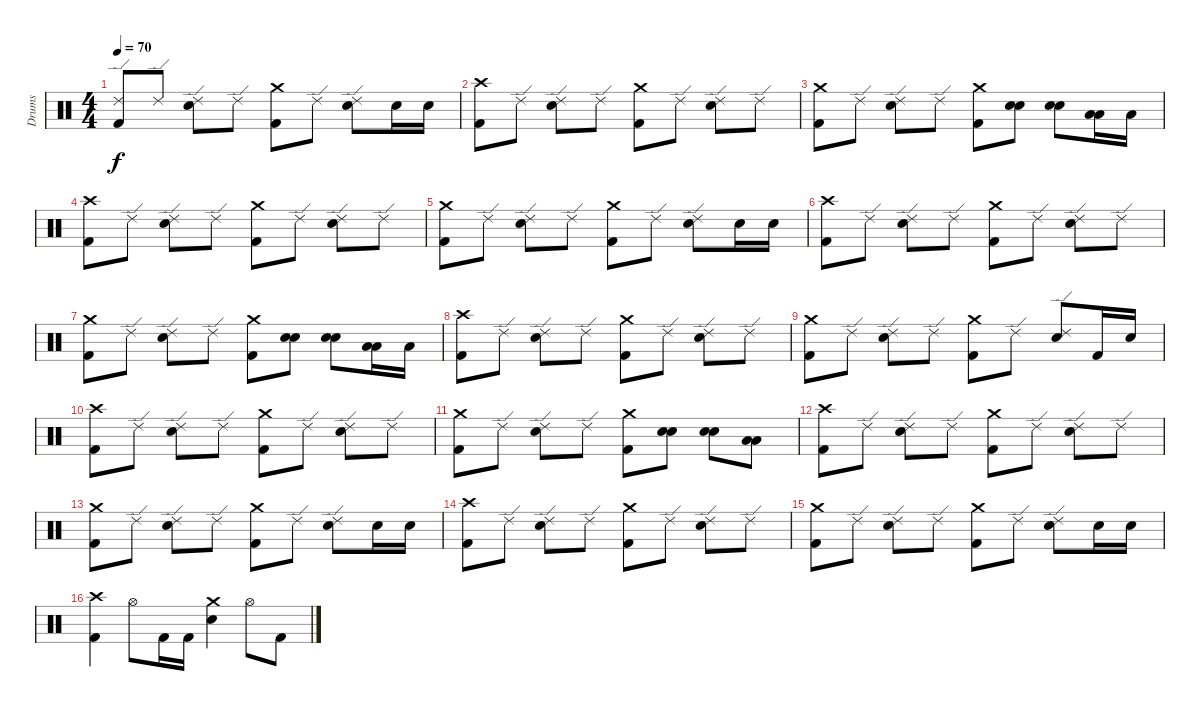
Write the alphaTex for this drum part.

\track ("Drums" "Drums") {instrument percussion}
\staff {score}
\articulation defaults
\ts (4 4)
\tempo 70
\clef neutral
\ks c
("Ride (edge) 2" "Kick (hit) 2").8{dy f} "Ride (edge) 2".8 ("Ride (edge) 2" "Electric Snare (hit)").8 "Ride (edge) 2".8 ("Crash medium (hit)" "Kick (hit) 2").8 "Ride (edge) 2".8 ("Ride (edge) 2" "Electric Snare (hit)").8 "Electric Snare (hit)".16 "Electric Snare (hit)".16 |
("Crash high (hit)" "Kick (hit) 2").8 "Ride (edge) 2".8 ("Ride (edge) 2" "Electric Snare (hit)").8 "Ride (edge) 2".8 ("Crash medium (hit)" "Kick (hit) 2").8 "Ride (edge) 2".8 ("Ride (edge) 2" "Electric Snare (hit)").8 "Ride (edge) 2".8 |
("Crash medium (hit)" "Kick (hit) 2").8 "Ride (edge) 2".8 ("Ride (edge) 2" "Electric Snare (hit)").8 "Ride (edge) 2".8 ("Crash medium (hit)" "Kick (hit) 2").8 ("Electric Snare (hit)" "Electric Snare (hit)").8{bu 60} ("Electric Snare (hit)" "Electric Snare (hit)").8{bu 60} ("Low Tom (hit)" "Low Tom (hit)").16{bu 60} "Low Tom (hit)".16 |
("Crash high (hit)" "Kick (hit) 2").8 "Ride (edge) 2".8 ("Ride (edge) 2" "Electric Snare (hit)").8 "Ride (edge) 2".8 ("Crash medium (hit)" "Kick (hit) 2").8 "Ride (edge) 2".8 ("Ride (edge) 2" "Electric Snare (hit)").8 "Ride (edge) 2".8 |
("Crash medium (hit)" "Kick (hit) 2").8 "Ride (edge) 2".8 ("Ride (edge) 2" "Electric Snare (hit)").8 "Ride (edge) 2".8 ("Crash medium (hit)" "Kick (hit) 2").8 "Ride (edge) 2".8 ("Ride (edge) 2" "Electric Snare (hit)").8 "Electric Snare (hit)".16 "Electric Snare (hit)".16 |
("Crash high (hit)" "Kick (hit) 2").8 "Ride (edge) 2".8 ("Ride (edge) 2" "Electric Snare (hit)").8 "Ride (edge) 2".8 ("Crash medium (hit)" "Kick (hit) 2").8 "Ride (edge) 2".8 ("Ride (edge) 2" "Electric Snare (hit)").8 "Ride (edge) 2".8 |
("Crash medium (hit)" "Kick (hit) 2").8 "Ride (edge) 2".8 ("Ride (edge) 2" "Electric Snare (hit)").8 "Ride (edge) 2".8 ("Crash medium (hit)" "Kick (hit) 2").8 ("Electric Snare (hit)" "Electric Snare (hit)").8{bu 60} ("Electric Snare (hit)" "Electric Snare (hit)").8{bu 60} ("Low Tom (hit)" "Low Tom (hit)").16{bu 60} "Low Tom (hit)".16 |
("Crash high (hit)" "Kick (hit) 2").8 "Ride (edge) 2".8 ("Ride (edge) 2" "Electric Snare (hit)").8 "Ride (edge) 2".8 ("Crash medium (hit)" "Kick (hit) 2").8 "Ride (edge) 2".8 ("Ride (edge) 2" "Electric Snare (hit)").8 "Ride (edge) 2".8 |
("Crash medium (hit)" "Kick (hit) 2").8 "Ride (edge) 2".8 ("Ride (edge) 2" "Electric Snare (hit)").8 "Ride (edge) 2".8 ("Crash medium (hit)" "Kick (hit) 2").8 "Ride (edge) 2".8 ("Ride (edge) 2" "Electric Snare (hit)").8 "Kick (hit) 2".16 "Electric Snare (hit)".16 |
("Crash high (hit)" "Kick (hit) 2").8 "Ride (edge) 2".8 ("Ride (edge) 2" "Electric Snare (hit)").8 "Ride (edge) 2".8 ("Crash medium (hit)" "Kick (hit) 2").8 "Ride (edge) 2".8 ("Ride (edge) 2" "Electric Snare (hit)").8 "Ride (edge) 2".8 |
("Crash medium (hit)" "Kick (hit) 2").8 "Ride (edge) 2".8 ("Ride (edge) 2" "Electric Snare (hit)").8 "Ride (edge) 2".8 ("Crash medium (hit)" "Kick (hit) 2").8 ("Electric Snare (hit)" "Electric Snare (hit)").8{bu 60} ("Electric Snare (hit)" "Electric Snare (hit)").8{bu 60} ("Low Tom (hit)" "Low Tom (hit)").8{bu 60} |
("Crash high (hit)" "Kick (hit) 2").8 "Ride (edge) 2".8 ("Ride (edge) 2" "Electric Snare (hit)").8 "Ride (edge) 2".8 ("Crash medium (hit)" "Kick (hit) 2").8 "Ride (edge) 2".8 ("Ride (edge) 2" "Electric Snare (hit)").8 "Ride (edge) 2".8 |
("Crash medium (hit)" "Kick (hit) 2").8 "Ride (edge) 2".8 ("Ride (edge) 2" "Electric Snare (hit)").8 "Ride (edge) 2".8 ("Crash medium (hit)" "Kick (hit) 2").8 "Ride (edge) 2".8 ("Ride (edge) 2" "Electric Snare (hit)").8 "Electric Snare (hit)".16 "Electric Snare (hit)".16 |
("Crash high (hit)" "Kick (hit) 2").8 "Ride (edge) 2".8 ("Ride (edge) 2" "Electric Snare (hit)").8 "Ride (edge) 2".8 ("Crash medium (hit)" "Kick (hit) 2").8 "Ride (edge) 2".8 ("Ride (edge) 2" "Electric Snare (hit)").8 "Ride (edge) 2".8 |
("Crash medium (hit)" "Kick (hit) 2").8 "Ride (edge) 2".8 ("Ride (edge) 2" "Electric Snare (hit)").8 "Ride (edge) 2".8 ("Crash medium (hit)" "Kick (hit) 2").8 "Ride (edge) 2".8 ("Ride (edge) 2" "Electric Snare (hit)").8 "Electric Snare (hit)".16 "Electric Snare (hit)".16 |
("Crash high (hit)" "Kick (hit) 2").4 "Hi-Hat (open)".8 "Kick (hit) 2".16 "Kick (hit) 2".16 ("Crash medium (hit)" "Electric Snare (hit)").4 "Hi-Hat (open)".8 "Kick (hit) 2".8
